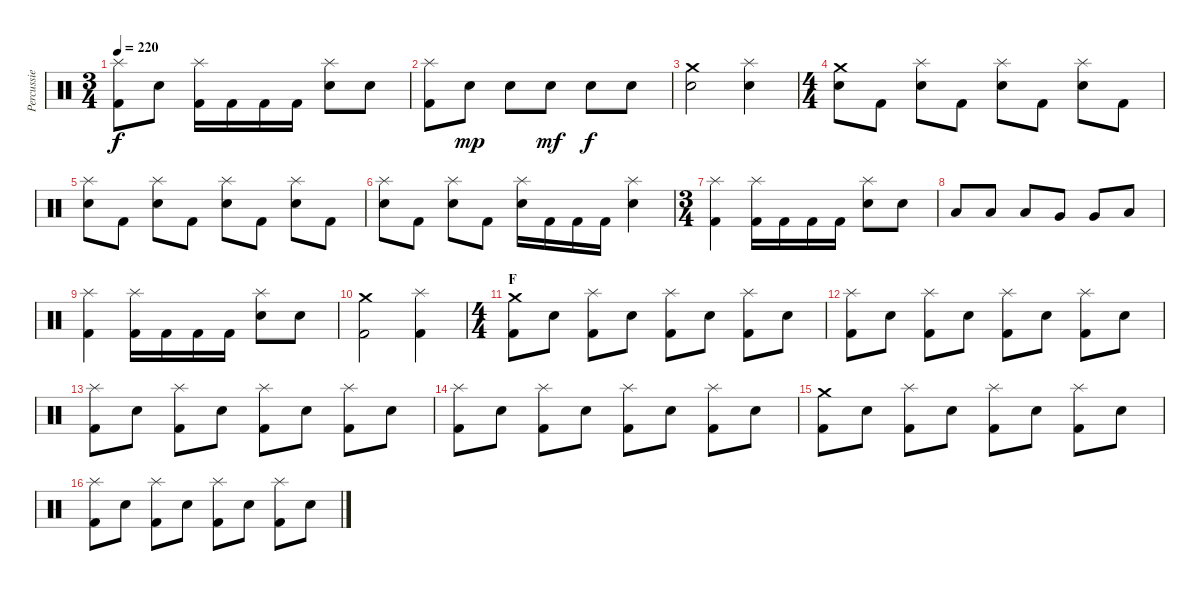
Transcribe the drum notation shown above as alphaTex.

\track ("Percussie" "Percussie") {instrument percussion}
\staff {score}
\articulation defaults
\ts (3 4)
\tempo 220
\clef neutral
\ks c
("Splash (hit)" "Kick (hit) 2").8{dy f} "Electric Snare (hit)".8 ("Splash (hit)" "Kick (hit) 2").16 "Kick (hit) 2".16 "Kick (hit) 2".16 "Kick (hit) 2".16 ("Splash (hit)" "Electric Snare (hit)").8 "Electric Snare (hit)".8 |
("Splash (hit)" "Kick (hit) 2").8 "Electric Snare (hit)".8{dy mp} "Electric Snare (hit)".8 "Electric Snare (hit)".8{dy mf} "Electric Snare (hit)".8{dy f} "Electric Snare (hit)".8 |
("Crash medium (hit)" "Electric Snare (hit)").2 ("Splash (hit)" "Electric Snare (hit)").4 |
\ts (4 4)
("Crash medium (hit)" "Electric Snare (hit)").8 "Kick (hit) 2".8 ("Splash (hit)" "Electric Snare (hit)").8 "Kick (hit) 2".8 ("Splash (hit)" "Electric Snare (hit)").8 "Kick (hit) 2".8 ("Splash (hit)" "Electric Snare (hit)").8 "Kick (hit) 2".8 |
("Splash (hit)" "Electric Snare (hit)").8 "Kick (hit) 2".8 ("Splash (hit)" "Electric Snare (hit)").8 "Kick (hit) 2".8 ("Splash (hit)" "Electric Snare (hit)").8 "Kick (hit) 2".8 ("Splash (hit)" "Electric Snare (hit)").8 "Kick (hit) 2".8 |
("Splash (hit)" "Electric Snare (hit)").8 "Kick (hit) 2".8 ("Splash (hit)" "Electric Snare (hit)").8 "Kick (hit) 2".8 ("Splash (hit)" "Electric Snare (hit)").16 "Kick (hit) 2".16 "Kick (hit) 2".16 "Kick (hit) 2".16 ("Splash (hit)" "Electric Snare (hit)").4 |
\ts (3 4)
("Splash (hit)" "Kick (hit) 2").4 ("Splash (hit)" "Kick (hit) 2").16 "Kick (hit) 2".16 "Kick (hit) 2".16 "Kick (hit) 2".16 ("Splash (hit)" "Electric Snare (hit)").8 "Electric Snare (hit)".8 |
"Low Tom (hit)".8 "Low Tom (hit)".8 "Low Tom (hit)".8 "Very Low Tom (hit)".8 "Very Low Tom (hit)".8 "Low Floor Tom (hit)".8 |
("Splash (hit)" "Kick (hit) 2").4 ("Splash (hit)" "Kick (hit) 2").16 "Kick (hit) 2".16 "Kick (hit) 2".16 "Kick (hit) 2".16 ("Splash (hit)" "Electric Snare (hit)").8 "Electric Snare (hit)".8 |
("Crash medium (hit)" "Kick (hit) 2").2 ("Splash (hit)" "Kick (hit) 2").4 |
\ts (4 4)
\section ("" "F")
("Crash medium (hit)" "Kick (hit) 2").8 "Electric Snare (hit)".8 ("Splash (hit)" "Kick (hit) 2").8 "Electric Snare (hit)".8 ("Splash (hit)" "Kick (hit) 2").8 "Electric Snare (hit)".8 ("Splash (hit)" "Kick (hit) 2").8 "Electric Snare (hit)".8 |
("Splash (hit)" "Kick (hit) 2").8 "Electric Snare (hit)".8 ("Splash (hit)" "Kick (hit) 2").8 "Electric Snare (hit)".8 ("Splash (hit)" "Kick (hit) 2").8 "Electric Snare (hit)".8 ("Splash (hit)" "Kick (hit) 2").8 "Electric Snare (hit)".8 |
("Splash (hit)" "Kick (hit) 2").8 "Electric Snare (hit)".8 ("Splash (hit)" "Kick (hit) 2").8 "Electric Snare (hit)".8 ("Splash (hit)" "Kick (hit) 2").8 "Electric Snare (hit)".8 ("Splash (hit)" "Kick (hit) 2").8 "Electric Snare (hit)".8 |
("Splash (hit)" "Kick (hit) 2").8 "Electric Snare (hit)".8 ("Splash (hit)" "Kick (hit) 2").8 "Electric Snare (hit)".8 ("Splash (hit)" "Kick (hit) 2").8 "Electric Snare (hit)".8 ("Splash (hit)" "Kick (hit) 2").8 "Electric Snare (hit)".8 |
("Crash medium (hit)" "Kick (hit) 2").8 "Electric Snare (hit)".8 ("Splash (hit)" "Kick (hit) 2").8 "Electric Snare (hit)".8 ("Splash (hit)" "Kick (hit) 2").8 "Electric Snare (hit)".8 ("Splash (hit)" "Kick (hit) 2").8 "Electric Snare (hit)".8 |
("Splash (hit)" "Kick (hit) 2").8 "Electric Snare (hit)".8 ("Splash (hit)" "Kick (hit) 2").8 "Electric Snare (hit)".8 ("Splash (hit)" "Kick (hit) 2").8 "Electric Snare (hit)".8 ("Splash (hit)" "Kick (hit) 2").8 "Electric Snare (hit)".8
